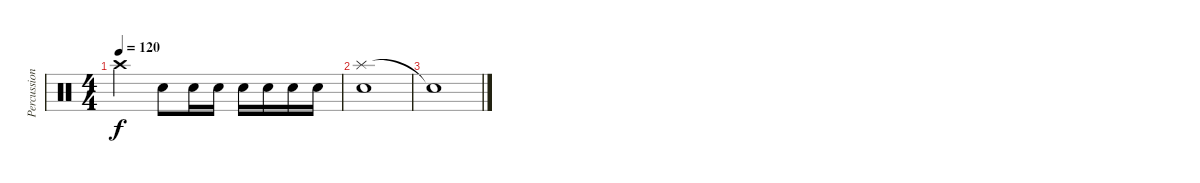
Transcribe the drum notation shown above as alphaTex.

\track ("Percussions Michael" "Percussion") {instrument percussion}
\staff {score}
\articulation defaults
\ts (4 4)
\tempo 120
\clef neutral
\ks c "Crash high (hit)".2{dy f} "Electric Snare (hit)".8 "Electric Snare (hit)".16 "Electric Snare (hit)".16 "Electric Snare (hit)".16 "Electric Snare (hit)".16 "Electric Snare (hit)".16 "Electric Snare (hit)".16
|
("Splash (hit)" "Electric Snare (hit)").1 |
"Snare (hit)"{t}.1
